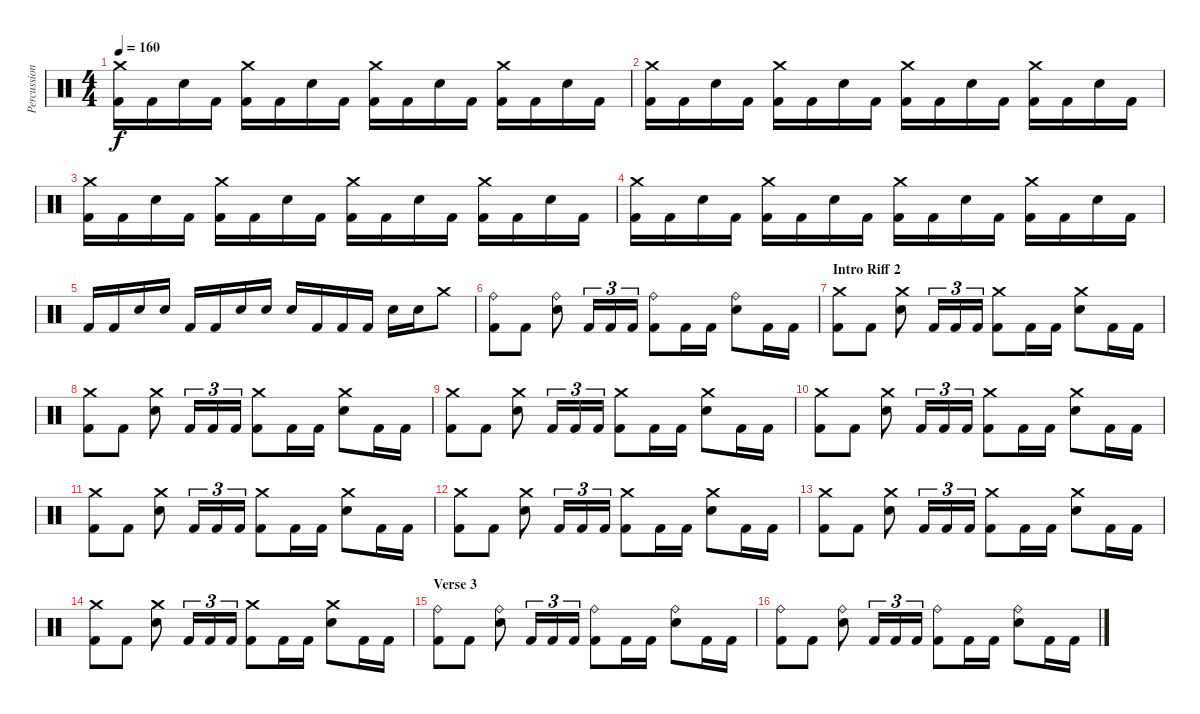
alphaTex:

\track ("Percussion" "Percussion") {instrument percussion}
\staff {score}
\articulation defaults
\ts (4 4)
\tempo 160
\clef neutral
\ks c
("Kick (hit) 2" "Crash medium (hit)").16{dy f} "Kick (hit) 2".16 "Electric Snare (hit)".16 "Kick (hit) 2".16 ("Kick (hit) 2" "Crash medium (hit)").16 "Kick (hit) 2".16 "Electric Snare (hit)".16 "Kick (hit) 2".16 ("Kick (hit) 2" "Crash medium (hit)").16 "Kick (hit) 2".16 "Electric Snare (hit)".16 "Kick (hit) 2".16 ("Kick (hit) 2" "Crash medium (hit)").16 "Kick (hit) 2".16 "Electric Snare (hit)".16 "Kick (hit) 2".16 |
("Kick (hit) 2" "Crash medium (hit)").16 "Kick (hit) 2".16 "Electric Snare (hit)".16 "Kick (hit) 2".16 ("Kick (hit) 2" "Crash medium (hit)").16 "Kick (hit) 2".16 "Electric Snare (hit)".16 "Kick (hit) 2".16 ("Kick (hit) 2" "Crash medium (hit)").16 "Kick (hit) 2".16 "Electric Snare (hit)".16 "Kick (hit) 2".16 ("Kick (hit) 2" "Crash medium (hit)").16 "Kick (hit) 2".16 "Electric Snare (hit)".16 "Kick (hit) 2".16 |
("Kick (hit) 2" "Crash medium (hit)").16 "Kick (hit) 2".16 "Electric Snare (hit)".16 "Kick (hit) 2".16 ("Kick (hit) 2" "Crash medium (hit)").16 "Kick (hit) 2".16 "Electric Snare (hit)".16 "Kick (hit) 2".16 ("Kick (hit) 2" "Crash medium (hit)").16 "Kick (hit) 2".16 "Electric Snare (hit)".16 "Kick (hit) 2".16 ("Kick (hit) 2" "Crash medium (hit)").16 "Kick (hit) 2".16 "Electric Snare (hit)".16 "Kick (hit) 2".16 |
("Kick (hit) 2" "Crash medium (hit)").16 "Kick (hit) 2".16 "Electric Snare (hit)".16 "Kick (hit) 2".16 ("Kick (hit) 2" "Crash medium (hit)").16 "Kick (hit) 2".16 "Electric Snare (hit)".16 "Kick (hit) 2".16 ("Kick (hit) 2" "Crash medium (hit)").16 "Kick (hit) 2".16 "Electric Snare (hit)".16 "Kick (hit) 2".16 ("Kick (hit) 2" "Crash medium (hit)").16 "Kick (hit) 2".16 "Electric Snare (hit)".16 "Kick (hit) 2".16 |
"Kick (hit) 2".16 "Kick (hit) 2".16 "Electric Snare (hit)".16 "Electric Snare (hit)".16 "Kick (hit) 2".16 "Kick (hit) 2".16 "Electric Snare (hit)".16 "Electric Snare (hit)".16 "Electric Snare (hit)".16 "Kick (hit) 2".16 "Kick (hit) 2".16 "Kick (hit) 2".16 "Electric Snare (hit)".16 "Electric Snare (hit)".16 "Crash medium (hit)".8 |
("Kick (hit) 2" "Ride (bell)").8 "Kick (hit) 2".8 ("Electric Snare (hit)" "Ride (bell)").8 "Kick (hit) 2".16{tu (3 2)} "Kick (hit) 2".16{tu (3 2)} "Kick (hit) 2".16{tu (3 2)} ("Kick (hit) 2" "Ride (bell)").8 "Kick (hit) 2".16 "Kick (hit) 2".16 ("Electric Snare (hit)" "Ride (bell)").8 "Kick (hit) 2".16 "Kick (hit) 2".16 |
\section ("" "Intro Riff 2")
("Kick (hit) 2" "Crash medium (hit)").8 "Kick (hit) 2".8 ("Electric Snare (hit)" "Crash medium (hit)").8 "Kick (hit) 2".16{tu (3 2)} "Kick (hit) 2".16{tu (3 2)} "Kick (hit) 2".16{tu (3 2)} ("Kick (hit) 2" "Crash medium (hit)").8 "Kick (hit) 2".16 "Kick (hit) 2".16 ("Electric Snare (hit)" "Crash medium (hit)").8 "Kick (hit) 2".16 "Kick (hit) 2".16 |
("Kick (hit) 2" "Crash medium (hit)").8 "Kick (hit) 2".8 ("Electric Snare (hit)" "Crash medium (hit)").8 "Kick (hit) 2".16{tu (3 2)} "Kick (hit) 2".16{tu (3 2)} "Kick (hit) 2".16{tu (3 2)} ("Kick (hit) 2" "Crash medium (hit)").8 "Kick (hit) 2".16 "Kick (hit) 2".16 ("Electric Snare (hit)" "Crash medium (hit)").8 "Kick (hit) 2".16 "Kick (hit) 2".16 |
("Kick (hit) 2" "Crash medium (hit)").8 "Kick (hit) 2".8 ("Electric Snare (hit)" "Crash medium (hit)").8 "Kick (hit) 2".16{tu (3 2)} "Kick (hit) 2".16{tu (3 2)} "Kick (hit) 2".16{tu (3 2)} ("Kick (hit) 2" "Crash medium (hit)").8 "Kick (hit) 2".16 "Kick (hit) 2".16 ("Electric Snare (hit)" "Crash medium (hit)").8 "Kick (hit) 2".16 "Kick (hit) 2".16 |
("Kick (hit) 2" "Crash medium (hit)").8 "Kick (hit) 2".8 ("Electric Snare (hit)" "Crash medium (hit)").8 "Kick (hit) 2".16{tu (3 2)} "Kick (hit) 2".16{tu (3 2)} "Kick (hit) 2".16{tu (3 2)} ("Kick (hit) 2" "Crash medium (hit)").8 "Kick (hit) 2".16 "Kick (hit) 2".16 ("Electric Snare (hit)" "Crash medium (hit)").8 "Kick (hit) 2".16 "Kick (hit) 2".16 |
("Kick (hit) 2" "Crash medium (hit)").8 "Kick (hit) 2".8 ("Electric Snare (hit)" "Crash medium (hit)").8 "Kick (hit) 2".16{tu (3 2)} "Kick (hit) 2".16{tu (3 2)} "Kick (hit) 2".16{tu (3 2)} ("Kick (hit) 2" "Crash medium (hit)").8 "Kick (hit) 2".16 "Kick (hit) 2".16 ("Electric Snare (hit)" "Crash medium (hit)").8 "Kick (hit) 2".16 "Kick (hit) 2".16 |
("Kick (hit) 2" "Crash medium (hit)").8 "Kick (hit) 2".8 ("Electric Snare (hit)" "Crash medium (hit)").8 "Kick (hit) 2".16{tu (3 2)} "Kick (hit) 2".16{tu (3 2)} "Kick (hit) 2".16{tu (3 2)} ("Kick (hit) 2" "Crash medium (hit)").8 "Kick (hit) 2".16 "Kick (hit) 2".16 ("Electric Snare (hit)" "Crash medium (hit)").8 "Kick (hit) 2".16 "Kick (hit) 2".16 |
("Kick (hit) 2" "Crash medium (hit)").8 "Kick (hit) 2".8 ("Electric Snare (hit)" "Crash medium (hit)").8 "Kick (hit) 2".16{tu (3 2)} "Kick (hit) 2".16{tu (3 2)} "Kick (hit) 2".16{tu (3 2)} ("Kick (hit) 2" "Crash medium (hit)").8 "Kick (hit) 2".16 "Kick (hit) 2".16 ("Electric Snare (hit)" "Crash medium (hit)").8 "Kick (hit) 2".16 "Kick (hit) 2".16 |
("Kick (hit) 2" "Crash medium (hit)").8 "Kick (hit) 2".8 ("Electric Snare (hit)" "Crash medium (hit)").8 "Kick (hit) 2".16{tu (3 2)} "Kick (hit) 2".16{tu (3 2)} "Kick (hit) 2".16{tu (3 2)} ("Kick (hit) 2" "Crash medium (hit)").8 "Kick (hit) 2".16 "Kick (hit) 2".16 ("Electric Snare (hit)" "Crash medium (hit)").8 "Kick (hit) 2".16 "Kick (hit) 2".16 |
\section ("" "Verse 3")
("Kick (hit) 2" "Ride (bell)").8 "Kick (hit) 2".8 ("Electric Snare (hit)" "Ride (bell)").8 "Kick (hit) 2".16{tu (3 2)} "Kick (hit) 2".16{tu (3 2)} "Kick (hit) 2".16{tu (3 2)} ("Kick (hit) 2" "Ride (bell)").8 "Kick (hit) 2".16 "Kick (hit) 2".16 ("Electric Snare (hit)" "Ride (bell)").8 "Kick (hit) 2".16 "Kick (hit) 2".16 |
("Kick (hit) 2" "Ride (bell)").8 "Kick (hit) 2".8 ("Electric Snare (hit)" "Ride (bell)").8 "Kick (hit) 2".16{tu (3 2)} "Kick (hit) 2".16{tu (3 2)} "Kick (hit) 2".16{tu (3 2)} ("Kick (hit) 2" "Ride (bell)").8 "Kick (hit) 2".16 "Kick (hit) 2".16 ("Electric Snare (hit)" "Ride (bell)").8 "Kick (hit) 2".16 "Kick (hit) 2".16
